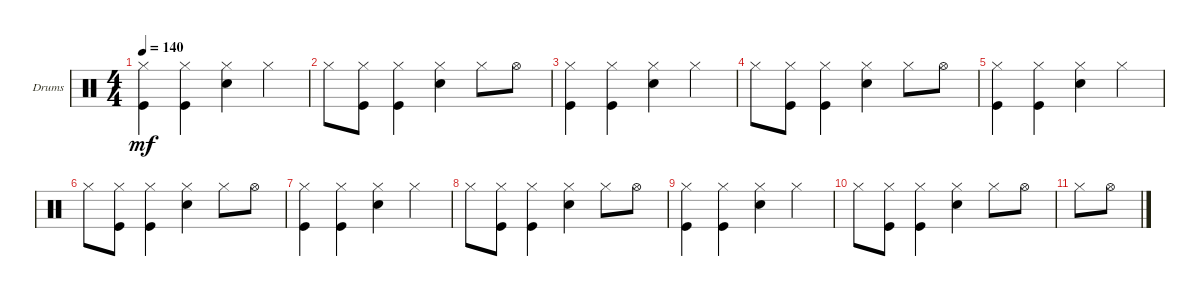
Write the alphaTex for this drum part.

\defaultSystemsLayout 4
\bracketExtendMode groupsimilarinstruments
\firstSystemTrackNameOrientation horizontal
\otherSystemsTrackNameOrientation horizontal
\track ("Drumkit" "Drums") {instrument percussion}
\staff {score}
\articulation defaults
\ts (4 4)
\tempo 140
\clef neutral
\ks c
("Hi-Hat (closed)" "Kick (hit)").4{dy mf} ("Hi-Hat (closed)" "Kick (hit)").4 ("Hi-Hat (closed)" "Snare (hit) 2").4 "Hi-Hat (closed)".4 |
"Hi-Hat (closed)".8 ("Hi-Hat (closed)" "Kick (hit)").8 ("Hi-Hat (closed)" "Kick (hit)").4 ("Snare (hit) 2" "Hi-Hat (closed)").4 "Hi-Hat (closed)".8 "Hi-Hat (open)".8 |
("Hi-Hat (closed)" "Kick (hit)").4 ("Hi-Hat (closed)" "Kick (hit)").4 ("Hi-Hat (closed)" "Snare (hit) 2").4 "Hi-Hat (closed)".4 |
"Hi-Hat (closed)".8 ("Hi-Hat (closed)" "Kick (hit)").8 ("Hi-Hat (closed)" "Kick (hit)").4 ("Snare (hit) 2" "Hi-Hat (closed)").4 "Hi-Hat (closed)".8 "Hi-Hat (open)".8 |
("Hi-Hat (closed)" "Kick (hit)").4 ("Hi-Hat (closed)" "Kick (hit)").4 ("Hi-Hat (closed)" "Snare (hit) 2").4 "Hi-Hat (closed)".4 |
"Hi-Hat (closed)".8 ("Hi-Hat (closed)" "Kick (hit)").8 ("Hi-Hat (closed)" "Kick (hit)").4 ("Snare (hit) 2" "Hi-Hat (closed)").4 "Hi-Hat (closed)".8 "Hi-Hat (open)".8 |
("Hi-Hat (closed)" "Kick (hit)").4 ("Hi-Hat (closed)" "Kick (hit)").4 ("Hi-Hat (closed)" "Snare (hit) 2").4 "Hi-Hat (closed)".4 |
"Hi-Hat (closed)".8 ("Hi-Hat (closed)" "Kick (hit)").8 ("Hi-Hat (closed)" "Kick (hit)").4 ("Snare (hit) 2" "Hi-Hat (closed)").4 "Hi-Hat (closed)".8 "Hi-Hat (open)".8 |
("Hi-Hat (closed)" "Kick (hit)").4 ("Hi-Hat (closed)" "Kick (hit)").4 ("Hi-Hat (closed)" "Snare (hit) 2").4 "Hi-Hat (closed)".4 |
"Hi-Hat (closed)".8 ("Hi-Hat (closed)" "Kick (hit)").8 ("Hi-Hat (closed)" "Kick (hit)").4 ("Snare (hit) 2" "Hi-Hat (closed)").4 "Hi-Hat (closed)".8 "Hi-Hat (open)".8 |
"Hi-Hat (closed)".8 "Hi-Hat (open)".8
